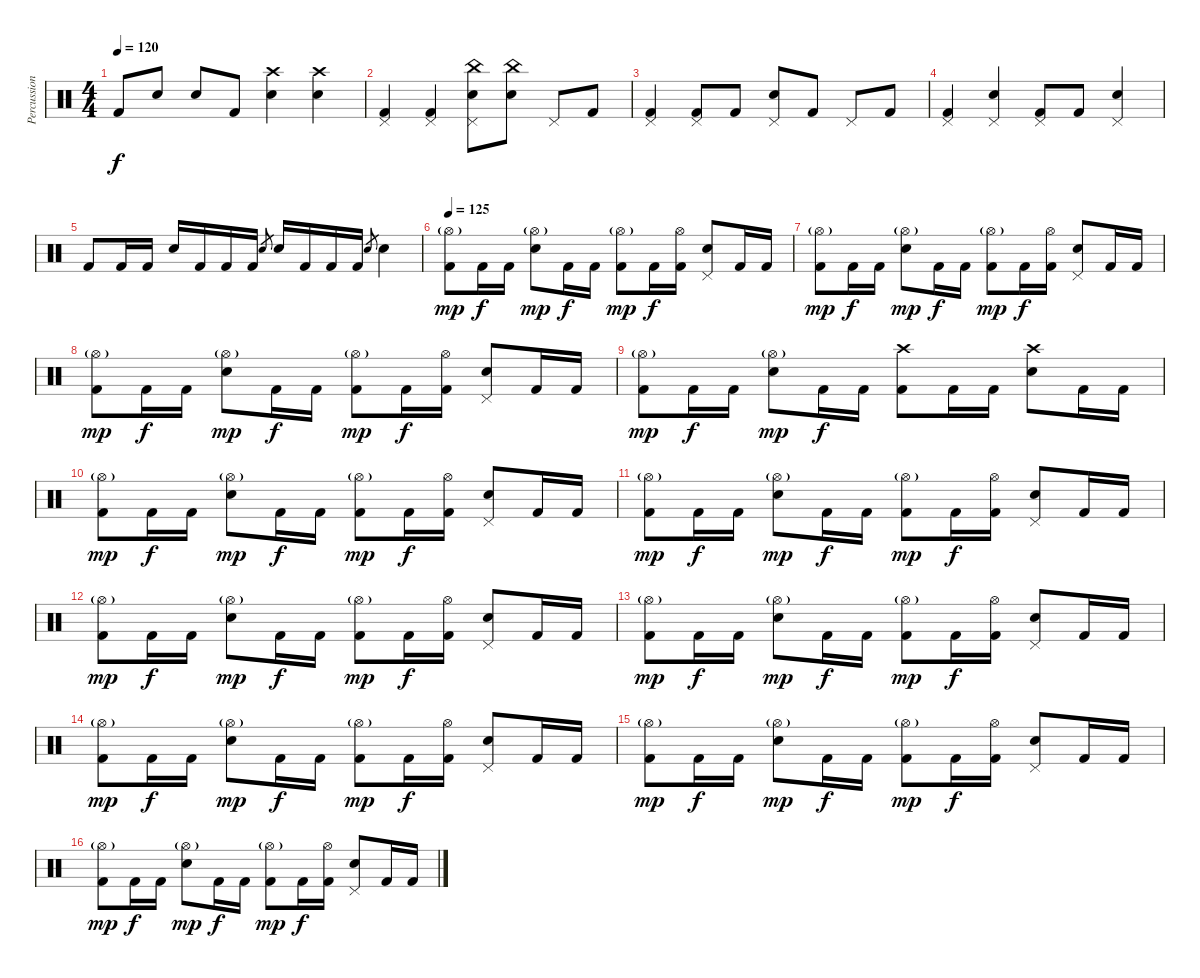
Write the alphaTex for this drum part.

\track ("Percussion" "Percussion") {instrument percussion}
\staff {score}
\articulation defaults
\ts (4 4)
\tempo 120
\clef neutral
\ks c "Kick (hit) 2".8{dy f} "Electric Snare (hit)".8 "Electric Snare (hit)".8 "Kick (hit) 2".8
("Crash high (hit)" "Electric Snare (hit)").4 ("Crash high (hit)" "Electric Snare (hit)").4 |
("Pedal Hi-Hat (hit)" "Kick (hit) 2").4 ("Pedal Hi-Hat (hit)" "Kick (hit) 2").4 ("Pedal Hi-Hat (hit)" "China (hit)" "Electric Snare (hit)").8 ("China (hit)" "Electric Snare (hit)").8 "Pedal Hi-Hat (hit)".8 "Kick (hit) 2".8 |
("Pedal Hi-Hat (hit)" "Kick (hit) 2").4 ("Pedal Hi-Hat (hit)" "Kick (hit) 2").8 "Kick (hit) 2".8 ("Pedal Hi-Hat (hit)" "Electric Snare (hit)").8 "Kick (hit) 2".8 "Pedal Hi-Hat (hit)".8 "Kick (hit) 2".8 |
("Pedal Hi-Hat (hit)" "Kick (hit) 2").4 ("Pedal Hi-Hat (hit)" "Electric Snare (hit)").4 ("Pedal Hi-Hat (hit)" "Kick (hit) 2").8 "Kick (hit) 2".8 ("Pedal Hi-Hat (hit)" "Electric Snare (hit)").4 |
"Kick (hit) 2".8 "Kick (hit) 2".16 "Kick (hit) 2".16 "Electric Snare (hit)".16 "Kick (hit) 2".16 "Kick (hit) 2".16 "Kick (hit) 2".16 "Electric Snare (hit)".8{gr} "Electric Snare (hit)".16 "Kick (hit) 2".16 "Kick (hit) 2".16 "Kick (hit) 2".16 "Electric Snare (hit)".8{gr} "Electric Snare (hit)".4 |
\tempo 125
("Hi-Hat (open)"{g} "Kick (hit) 2").8{dy mp} "Kick (hit) 2".16{dy f} "Kick (hit) 2".16 ("Hi-Hat (open)"{g} "Electric Snare (hit)").8{dy mp} "Kick (hit) 2".16{dy f} "Kick (hit) 2".16 ("Hi-Hat (open)"{g} "Kick (hit) 2").8{dy mp} "Kick (hit) 2".16{dy f} ("Hi-Hat (open)" "Kick (hit) 2").16 ("Pedal Hi-Hat (hit)" "Electric Snare (hit)").8 "Kick (hit) 2".16 "Kick (hit) 2".16 |
("Hi-Hat (open)"{g} "Kick (hit) 2").8{dy mp} "Kick (hit) 2".16{dy f} "Kick (hit) 2".16 ("Hi-Hat (open)"{g} "Electric Snare (hit)").8{dy mp} "Kick (hit) 2".16{dy f} "Kick (hit) 2".16 ("Hi-Hat (open)"{g} "Kick (hit) 2").8{dy mp} "Kick (hit) 2".16{dy f} ("Hi-Hat (open)" "Kick (hit) 2").16 ("Pedal Hi-Hat (hit)" "Electric Snare (hit)").8 "Kick (hit) 2".16 "Kick (hit) 2".16 |
("Hi-Hat (open)"{g} "Kick (hit) 2").8{dy mp} "Kick (hit) 2".16{dy f} "Kick (hit) 2".16 ("Hi-Hat (open)"{g} "Electric Snare (hit)").8{dy mp} "Kick (hit) 2".16{dy f} "Kick (hit) 2".16 ("Hi-Hat (open)"{g} "Kick (hit) 2").8{dy mp} "Kick (hit) 2".16{dy f} ("Hi-Hat (open)" "Kick (hit) 2").16 ("Pedal Hi-Hat (hit)" "Electric Snare (hit)").8 "Kick (hit) 2".16 "Kick (hit) 2".16 |
("Hi-Hat (open)"{g} "Kick (hit) 2").8{dy mp} "Kick (hit) 2".16{dy f} "Kick (hit) 2".16 ("Hi-Hat (open)"{g} "Electric Snare (hit)").8{dy mp} "Kick (hit) 2".16{dy f} "Kick (hit) 2".16 ("Crash high (hit)" "Kick (hit) 2").8 "Kick (hit) 2".16 "Kick (hit) 2".16 ("Crash high (hit)" "Electric Snare (hit)").8 "Kick (hit) 2".16 "Kick (hit) 2".16 |
("Hi-Hat (open)"{g} "Kick (hit) 2").8{dy mp} "Kick (hit) 2".16{dy f} "Kick (hit) 2".16 ("Hi-Hat (open)"{g} "Electric Snare (hit)").8{dy mp} "Kick (hit) 2".16{dy f} "Kick (hit) 2".16 ("Hi-Hat (open)"{g} "Kick (hit) 2").8{dy mp} "Kick (hit) 2".16{dy f} ("Hi-Hat (open)" "Kick (hit) 2").16 ("Pedal Hi-Hat (hit)" "Electric Snare (hit)").8 "Kick (hit) 2".16 "Kick (hit) 2".16 |
("Hi-Hat (open)"{g} "Kick (hit) 2").8{dy mp} "Kick (hit) 2".16{dy f} "Kick (hit) 2".16 ("Hi-Hat (open)"{g} "Electric Snare (hit)").8{dy mp} "Kick (hit) 2".16{dy f} "Kick (hit) 2".16 ("Hi-Hat (open)"{g} "Kick (hit) 2").8{dy mp} "Kick (hit) 2".16{dy f} ("Hi-Hat (open)" "Kick (hit) 2").16 ("Pedal Hi-Hat (hit)" "Electric Snare (hit)").8 "Kick (hit) 2".16 "Kick (hit) 2".16 |
("Hi-Hat (open)"{g} "Kick (hit) 2").8{dy mp} "Kick (hit) 2".16{dy f} "Kick (hit) 2".16 ("Hi-Hat (open)"{g} "Electric Snare (hit)").8{dy mp} "Kick (hit) 2".16{dy f} "Kick (hit) 2".16 ("Hi-Hat (open)"{g} "Kick (hit) 2").8{dy mp} "Kick (hit) 2".16{dy f} ("Hi-Hat (open)" "Kick (hit) 2").16 ("Pedal Hi-Hat (hit)" "Electric Snare (hit)").8 "Kick (hit) 2".16 "Kick (hit) 2".16 |
("Hi-Hat (open)"{g} "Kick (hit) 2").8{dy mp} "Kick (hit) 2".16{dy f} "Kick (hit) 2".16 ("Hi-Hat (open)"{g} "Electric Snare (hit)").8{dy mp} "Kick (hit) 2".16{dy f} "Kick (hit) 2".16 ("Hi-Hat (open)"{g} "Kick (hit) 2").8{dy mp} "Kick (hit) 2".16{dy f} ("Hi-Hat (open)" "Kick (hit) 2").16 ("Pedal Hi-Hat (hit)" "Electric Snare (hit)").8 "Kick (hit) 2".16 "Kick (hit) 2".16 |
("Hi-Hat (open)"{g} "Kick (hit) 2").8{dy mp} "Kick (hit) 2".16{dy f} "Kick (hit) 2".16 ("Hi-Hat (open)"{g} "Electric Snare (hit)").8{dy mp} "Kick (hit) 2".16{dy f} "Kick (hit) 2".16 ("Hi-Hat (open)"{g} "Kick (hit) 2").8{dy mp} "Kick (hit) 2".16{dy f} ("Hi-Hat (open)" "Kick (hit) 2").16 ("Pedal Hi-Hat (hit)" "Electric Snare (hit)").8 "Kick (hit) 2".16 "Kick (hit) 2".16 |
("Hi-Hat (open)"{g} "Kick (hit) 2").8{dy mp} "Kick (hit) 2".16{dy f} "Kick (hit) 2".16 ("Hi-Hat (open)"{g} "Electric Snare (hit)").8{dy mp} "Kick (hit) 2".16{dy f} "Kick (hit) 2".16 ("Hi-Hat (open)"{g} "Kick (hit) 2").8{dy mp} "Kick (hit) 2".16{dy f} ("Hi-Hat (open)" "Kick (hit) 2").16 ("Pedal Hi-Hat (hit)" "Electric Snare (hit)").8 "Kick (hit) 2".16 "Kick (hit) 2".16 |
("Hi-Hat (open)"{g} "Kick (hit) 2").8{dy mp} "Kick (hit) 2".16{dy f} "Kick (hit) 2".16 ("Hi-Hat (open)"{g} "Electric Snare (hit)").8{dy mp} "Kick (hit) 2".16{dy f} "Kick (hit) 2".16 ("Hi-Hat (open)"{g} "Kick (hit) 2").8{dy mp} "Kick (hit) 2".16{dy f} ("Hi-Hat (open)" "Kick (hit) 2").16 ("Pedal Hi-Hat (hit)" "Electric Snare (hit)").8 "Kick (hit) 2".16 "Kick (hit) 2".16
